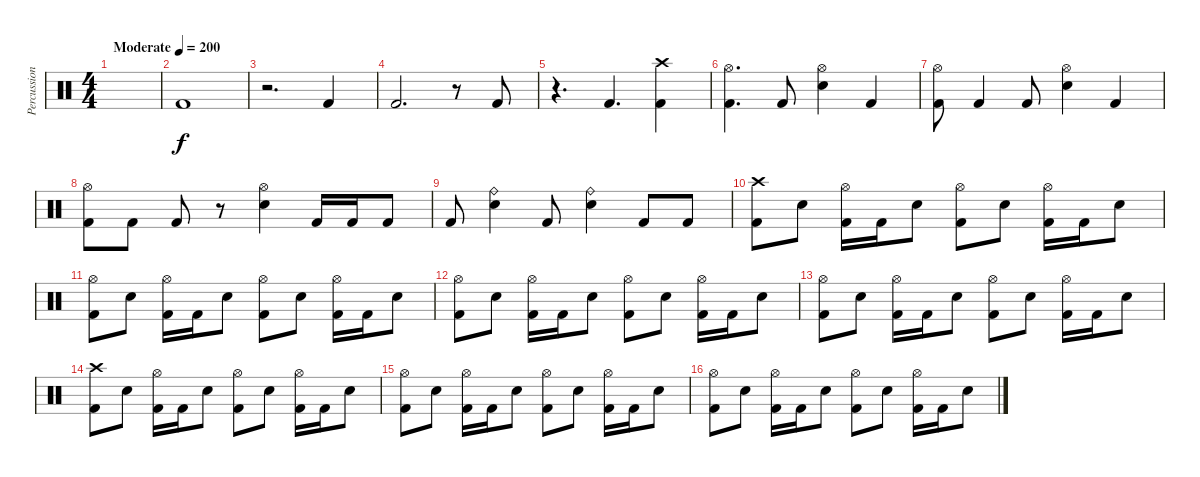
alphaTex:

\track ("Percussion" "Percussion") {instrument percussion}
\staff {score}
\articulation defaults
\ts (4 4)
\tempo (200 "Moderate")
\clef neutral
\ks c
|
"Kick (hit) 2".1 |
r.2{d} "Kick (hit) 2".4 |
"Kick (hit) 2".2{d} r.8 "Kick (hit) 2".8 |
r.4{d} "Kick (hit) 2".4{d} ("Crash high (hit)" "Kick (hit) 2").4 |
("Hi-Hat (open)" "Kick (hit) 2").4{d} "Kick (hit) 2".8 ("Hi-Hat (open)" "Snare (hit) 2").4 "Kick (hit) 2".4 |
("Hi-Hat (open)" "Kick (hit) 2").8 "Kick (hit) 2".4 "Kick (hit) 2".8 ("Hi-Hat (open)" "Snare (hit) 2").4 "Kick (hit) 2".4 |
("Hi-Hat (open)" "Kick (hit) 2").8 "Kick (hit) 2".8 "Kick (hit) 2".8 r.8 ("Hi-Hat (open)" "Snare (hit) 2").4 "Kick (hit) 2".16 "Kick (hit) 2".16 "Kick (hit) 2".8 |
"Kick (hit) 2".8 ("Ride (bell)" "Snare (hit) 2").4 "Kick (hit) 2".8 ("Ride (bell)" "Snare (hit) 2").4 "Kick (hit) 2".8 "Kick (hit) 2".8 |
("Crash high (hit)" "Kick (hit) 2").8 "Snare (hit) 2".8 ("Hi-Hat (open)" "Kick (hit) 2").16 "Kick (hit) 2".16 "Snare (hit) 2".8 ("Hi-Hat (open)" "Kick (hit) 2").8 "Snare (hit) 2".8 ("Hi-Hat (open)" "Kick (hit) 2").16 "Kick (hit) 2".16 "Snare (hit) 2".8 |
("Hi-Hat (open)" "Kick (hit) 2").8 "Snare (hit) 2".8 ("Hi-Hat (open)" "Kick (hit) 2").16 "Kick (hit) 2".16 "Snare (hit) 2".8 ("Hi-Hat (open)" "Kick (hit) 2").8 "Snare (hit) 2".8 ("Hi-Hat (open)" "Kick (hit) 2").16 "Kick (hit) 2".16 "Snare (hit) 2".8 |
("Hi-Hat (open)" "Kick (hit) 2").8 "Snare (hit) 2".8 ("Hi-Hat (open)" "Kick (hit) 2").16 "Kick (hit) 2".16 "Snare (hit) 2".8 ("Hi-Hat (open)" "Kick (hit) 2").8 "Snare (hit) 2".8 ("Hi-Hat (open)" "Kick (hit) 2").16 "Kick (hit) 2".16 "Snare (hit) 2".8 |
("Hi-Hat (open)" "Kick (hit) 2").8 "Snare (hit) 2".8 ("Hi-Hat (open)" "Kick (hit) 2").16 "Kick (hit) 2".16 "Snare (hit) 2".8 ("Hi-Hat (open)" "Kick (hit) 2").8 "Snare (hit) 2".8 ("Hi-Hat (open)" "Kick (hit) 2").16 "Kick (hit) 2".16 "Snare (hit) 2".8 |
("Crash high (hit)" "Kick (hit) 2").8 "Snare (hit) 2".8 ("Hi-Hat (open)" "Kick (hit) 2").16 "Kick (hit) 2".16 "Snare (hit) 2".8 ("Hi-Hat (open)" "Kick (hit) 2").8 "Snare (hit) 2".8 ("Hi-Hat (open)" "Kick (hit) 2").16 "Kick (hit) 2".16 "Snare (hit) 2".8 |
("Hi-Hat (open)" "Kick (hit) 2").8 "Snare (hit) 2".8 ("Hi-Hat (open)" "Kick (hit) 2").16 "Kick (hit) 2".16 "Snare (hit) 2".8 ("Hi-Hat (open)" "Kick (hit) 2").8 "Snare (hit) 2".8 ("Hi-Hat (open)" "Kick (hit) 2").16 "Kick (hit) 2".16 "Snare (hit) 2".8 |
("Hi-Hat (open)" "Kick (hit) 2").8 "Snare (hit) 2".8 ("Hi-Hat (open)" "Kick (hit) 2").16 "Kick (hit) 2".16 "Snare (hit) 2".8 ("Hi-Hat (open)" "Kick (hit) 2").8 "Snare (hit) 2".8 ("Hi-Hat (open)" "Kick (hit) 2").16 "Kick (hit) 2".16 "Snare (hit) 2".8
